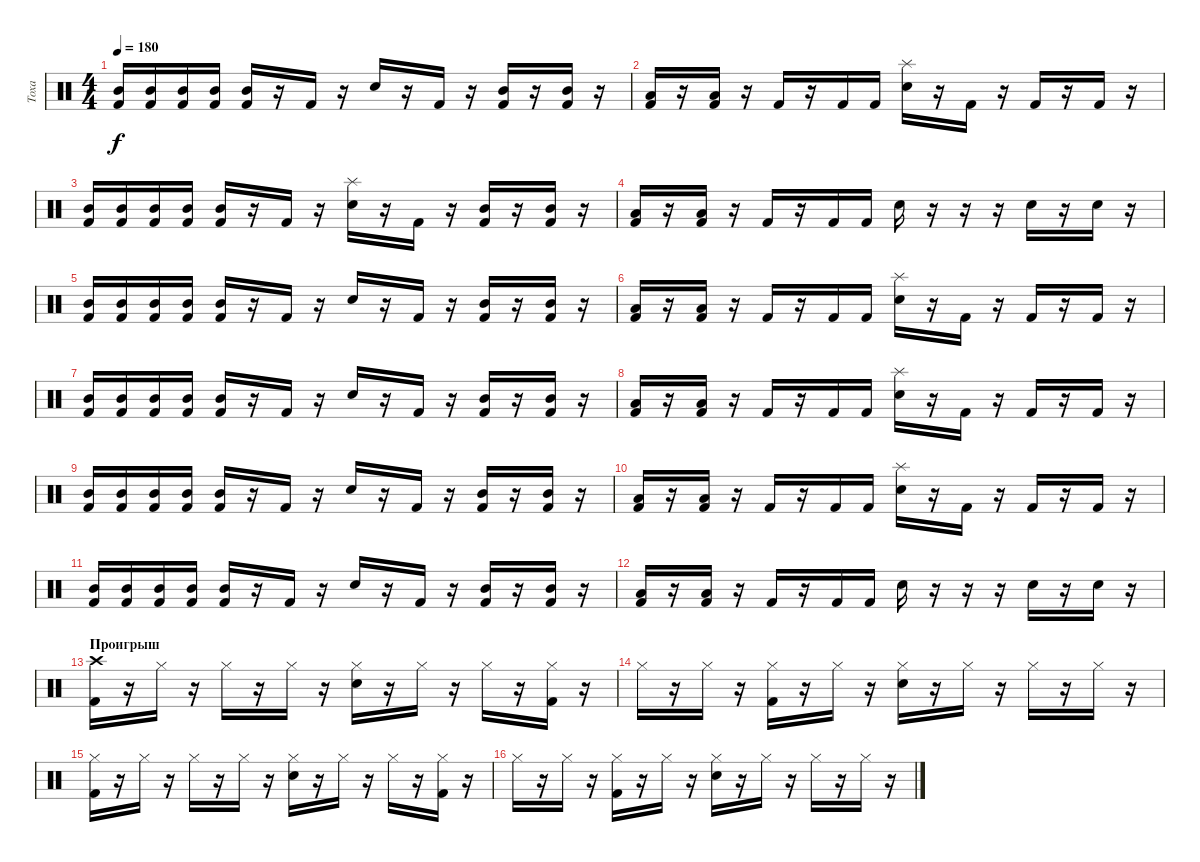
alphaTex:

\track ("Тоха" "Тоха") {instrument percussion}
\staff {score}
\articulation defaults
\ts (4 4)
\tempo 180
\clef neutral
\ks c
("Mid Tom (hit)" "Kick (hit) 2").16{dy f} ("Mid Tom (hit)" "Kick (hit) 2").16 ("Mid Tom (hit)" "Kick (hit) 2").16 ("Mid Tom (hit)" "Kick (hit) 2").16 ("Mid Tom (hit)" "Kick (hit) 2").16 r.16 "Kick (hit) 2".16 r.16 "Electric Snare (hit)".16 r.16 "Kick (hit) 2".16 r.16 ("Mid Tom (hit)" "Kick (hit) 2").16 r.16 ("Mid Tom (hit)" "Kick (hit) 2").16 r.16 |
("Low Tom (hit)" "Kick (hit) 2").16 r.16 ("Low Tom (hit)" "Kick (hit) 2").16 r.16 "Kick (hit) 2".16 r.16 "Kick (hit) 2".16 "Kick (hit) 2".16 ("Splash (hit)" "Electric Snare (hit)").16 r.16 "Kick (hit) 2".16 r.16 "Kick (hit) 2".16 r.16 "Kick (hit) 2".16 r.16 |
("Mid Tom (hit)" "Kick (hit) 2").16 ("Mid Tom (hit)" "Kick (hit) 2").16 ("Mid Tom (hit)" "Kick (hit) 2").16 ("Mid Tom (hit)" "Kick (hit) 2").16 ("Mid Tom (hit)" "Kick (hit) 2").16 r.16 "Kick (hit) 2".16 r.16 ("Splash (hit)" "Electric Snare (hit)").16 r.16 "Kick (hit) 2".16 r.16 ("Mid Tom (hit)" "Kick (hit) 2").16 r.16 ("Mid Tom (hit)" "Kick (hit) 2").16 r.16 |
("Low Tom (hit)" "Kick (hit) 2").16 r.16 ("Low Tom (hit)" "Kick (hit) 2").16 r.16 "Kick (hit) 2".16 r.16 "Kick (hit) 2".16 "Kick (hit) 2".16 "Electric Snare (hit)".16 r.16 r.16 r.16 "Electric Snare (hit)".16 r.16 "Electric Snare (hit)".16 r.16 |
("Mid Tom (hit)" "Kick (hit) 2").16 ("Mid Tom (hit)" "Kick (hit) 2").16 ("Mid Tom (hit)" "Kick (hit) 2").16 ("Mid Tom (hit)" "Kick (hit) 2").16 ("Mid Tom (hit)" "Kick (hit) 2").16 r.16 "Kick (hit) 2".16 r.16 "Electric Snare (hit)".16 r.16 "Kick (hit) 2".16 r.16 ("Mid Tom (hit)" "Kick (hit) 2").16 r.16 ("Mid Tom (hit)" "Kick (hit) 2").16 r.16 |
("Low Tom (hit)" "Kick (hit) 2").16 r.16 ("Low Tom (hit)" "Kick (hit) 2").16 r.16 "Kick (hit) 2".16 r.16 "Kick (hit) 2".16 "Kick (hit) 2".16 ("Splash (hit)" "Electric Snare (hit)").16 r.16 "Kick (hit) 2".16 r.16 "Kick (hit) 2".16 r.16 "Kick (hit) 2".16 r.16 |
("Mid Tom (hit)" "Kick (hit) 2").16 ("Mid Tom (hit)" "Kick (hit) 2").16 ("Mid Tom (hit)" "Kick (hit) 2").16 ("Mid Tom (hit)" "Kick (hit) 2").16 ("Mid Tom (hit)" "Kick (hit) 2").16 r.16 "Kick (hit) 2".16 r.16 "Electric Snare (hit)".16 r.16 "Kick (hit) 2".16 r.16 ("Mid Tom (hit)" "Kick (hit) 2").16 r.16 ("Mid Tom (hit)" "Kick (hit) 2").16 r.16 |
("Low Tom (hit)" "Kick (hit) 2").16 r.16 ("Low Tom (hit)" "Kick (hit) 2").16 r.16 "Kick (hit) 2".16 r.16 "Kick (hit) 2".16 "Kick (hit) 2".16 ("Splash (hit)" "Electric Snare (hit)").16 r.16 "Kick (hit) 2".16 r.16 "Kick (hit) 2".16 r.16 "Kick (hit) 2".16 r.16 |
("Mid Tom (hit)" "Kick (hit) 2").16 ("Mid Tom (hit)" "Kick (hit) 2").16 ("Mid Tom (hit)" "Kick (hit) 2").16 ("Mid Tom (hit)" "Kick (hit) 2").16 ("Mid Tom (hit)" "Kick (hit) 2").16 r.16 "Kick (hit) 2".16 r.16 "Electric Snare (hit)".16 r.16 "Kick (hit) 2".16 r.16 ("Mid Tom (hit)" "Kick (hit) 2").16 r.16 ("Mid Tom (hit)" "Kick (hit) 2").16 r.16 |
("Low Tom (hit)" "Kick (hit) 2").16 r.16 ("Low Tom (hit)" "Kick (hit) 2").16 r.16 "Kick (hit) 2".16 r.16 "Kick (hit) 2".16 "Kick (hit) 2".16 ("Splash (hit)" "Electric Snare (hit)").16 r.16 "Kick (hit) 2".16 r.16 "Kick (hit) 2".16 r.16 "Kick (hit) 2".16 r.16 |
("Mid Tom (hit)" "Kick (hit) 2").16 ("Mid Tom (hit)" "Kick (hit) 2").16 ("Mid Tom (hit)" "Kick (hit) 2").16 ("Mid Tom (hit)" "Kick (hit) 2").16 ("Mid Tom (hit)" "Kick (hit) 2").16 r.16 "Kick (hit) 2".16 r.16 "Electric Snare (hit)".16 r.16 "Kick (hit) 2".16 r.16 ("Mid Tom (hit)" "Kick (hit) 2").16 r.16 ("Mid Tom (hit)" "Kick (hit) 2").16 r.16 |
("Low Tom (hit)" "Kick (hit) 2").16 r.16 ("Low Tom (hit)" "Kick (hit) 2").16 r.16 "Kick (hit) 2".16 r.16 "Kick (hit) 2".16 "Kick (hit) 2".16 "Electric Snare (hit)".16 r.16 r.16 r.16 "Electric Snare (hit)".16 r.16 "Electric Snare (hit)".16 r.16 |
\section ("" "Проигрыш")
("Crash high (hit)" "Kick (hit) 2").16 r.16 "Hi-Hat (closed)".16 r.16 "Hi-Hat (closed)".16 r.16 "Hi-Hat (closed)".16 r.16 ("Hi-Hat (closed)" "Electric Snare (hit)").16 r.16 "Hi-Hat (closed)".16 r.16 "Hi-Hat (closed)".16 r.16 ("Hi-Hat (closed)" "Kick (hit) 2").16 r.16 |
"Hi-Hat (closed)".16 r.16 "Hi-Hat (closed)".16 r.16 ("Hi-Hat (closed)" "Kick (hit) 2").16 r.16 "Hi-Hat (closed)".16 r.16 ("Hi-Hat (closed)" "Electric Snare (hit)").16 r.16 "Hi-Hat (closed)".16 r.16 "Hi-Hat (closed)".16 r.16 "Hi-Hat (closed)".16 r.16 |
("Hi-Hat (closed)" "Kick (hit) 2").16 r.16 "Hi-Hat (closed)".16 r.16 "Hi-Hat (closed)".16 r.16 "Hi-Hat (closed)".16 r.16 ("Hi-Hat (closed)" "Electric Snare (hit)").16 r.16 "Hi-Hat (closed)".16 r.16 "Hi-Hat (closed)".16 r.16 ("Hi-Hat (closed)" "Kick (hit) 2").16 r.16 |
"Hi-Hat (closed)".16 r.16 "Hi-Hat (closed)".16 r.16 ("Hi-Hat (closed)" "Kick (hit) 2").16 r.16 "Hi-Hat (closed)".16 r.16 ("Hi-Hat (closed)" "Electric Snare (hit)").16 r.16 "Hi-Hat (closed)".16 r.16 "Hi-Hat (closed)".16 r.16 "Hi-Hat (closed)".16 r.16
